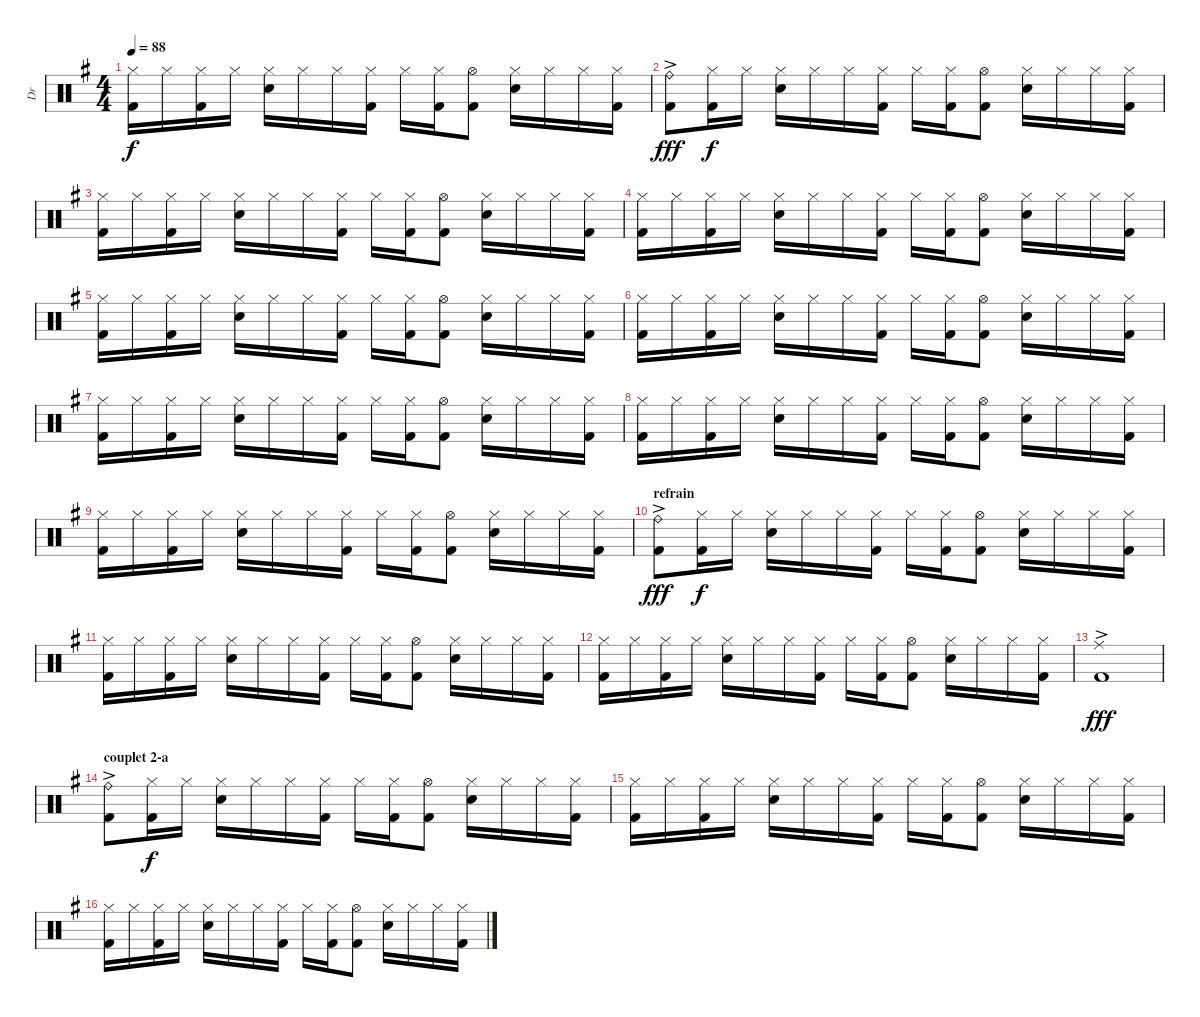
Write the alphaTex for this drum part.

\track ("Dr" "Dr") {instrument percussion}
\staff {score}
\articulation defaults
\ts (4 4)
\tempo 88
\clef neutral
\ks g
("Hi-Hat (closed)" "Kick (hit) 2").16{dy f} "Hi-Hat (closed)".16 ("Hi-Hat (closed)" "Kick (hit) 2").16 "Hi-Hat (closed)".16 ("Hi-Hat (closed)" "Electric Snare (hit)").16 "Hi-Hat (closed)".16 "Hi-Hat (closed)".16 ("Hi-Hat (closed)" "Kick (hit) 2").16 "Hi-Hat (closed)".16 ("Hi-Hat (closed)" "Kick (hit) 2").16 ("Hi-Hat (open)" "Kick (hit) 2").8 ("Hi-Hat (closed)" "Electric Snare (hit)").16 "Hi-Hat (closed)".16 "Hi-Hat (closed)".16 ("Hi-Hat (closed)" "Kick (hit) 2").16 |
("Ride (bell)"{ac} "Kick (hit) 2"{ac}).8{dy fff} ("Hi-Hat (closed)" "Kick (hit) 2").16{dy f} "Hi-Hat (closed)".16 ("Hi-Hat (closed)" "Electric Snare (hit)").16 "Hi-Hat (closed)".16 "Hi-Hat (closed)".16 ("Hi-Hat (closed)" "Kick (hit) 2").16 "Hi-Hat (closed)".16 ("Hi-Hat (closed)" "Kick (hit) 2").16 ("Hi-Hat (open)" "Kick (hit) 2").8 ("Hi-Hat (closed)" "Electric Snare (hit)").16 "Hi-Hat (closed)".16 "Hi-Hat (closed)".16 ("Hi-Hat (closed)" "Kick (hit) 2").16 |
("Hi-Hat (closed)" "Kick (hit) 2").16 "Hi-Hat (closed)".16 ("Hi-Hat (closed)" "Kick (hit) 2").16 "Hi-Hat (closed)".16 ("Hi-Hat (closed)" "Electric Snare (hit)").16 "Hi-Hat (closed)".16 "Hi-Hat (closed)".16 ("Hi-Hat (closed)" "Kick (hit) 2").16 "Hi-Hat (closed)".16 ("Hi-Hat (closed)" "Kick (hit) 2").16 ("Hi-Hat (open)" "Kick (hit) 2").8 ("Hi-Hat (closed)" "Electric Snare (hit)").16 "Hi-Hat (closed)".16 "Hi-Hat (closed)".16 ("Hi-Hat (closed)" "Kick (hit) 2").16 |
("Hi-Hat (closed)" "Kick (hit) 2").16 "Hi-Hat (closed)".16 ("Hi-Hat (closed)" "Kick (hit) 2").16 "Hi-Hat (closed)".16 ("Hi-Hat (closed)" "Electric Snare (hit)").16 "Hi-Hat (closed)".16 "Hi-Hat (closed)".16 ("Hi-Hat (closed)" "Kick (hit) 2").16 "Hi-Hat (closed)".16 ("Hi-Hat (closed)" "Kick (hit) 2").16 ("Hi-Hat (open)" "Kick (hit) 2").8 ("Hi-Hat (closed)" "Electric Snare (hit)").16 "Hi-Hat (closed)".16 "Hi-Hat (closed)".16 ("Hi-Hat (closed)" "Kick (hit) 2").16 |
("Hi-Hat (closed)" "Kick (hit) 2").16 "Hi-Hat (closed)".16 ("Hi-Hat (closed)" "Kick (hit) 2").16 "Hi-Hat (closed)".16 ("Hi-Hat (closed)" "Electric Snare (hit)").16 "Hi-Hat (closed)".16 "Hi-Hat (closed)".16 ("Hi-Hat (closed)" "Kick (hit) 2").16 "Hi-Hat (closed)".16 ("Hi-Hat (closed)" "Kick (hit) 2").16 ("Hi-Hat (open)" "Kick (hit) 2").8 ("Hi-Hat (closed)" "Electric Snare (hit)").16 "Hi-Hat (closed)".16 "Hi-Hat (closed)".16 ("Hi-Hat (closed)" "Kick (hit) 2").16 |
("Hi-Hat (closed)" "Kick (hit) 2").16 "Hi-Hat (closed)".16 ("Hi-Hat (closed)" "Kick (hit) 2").16 "Hi-Hat (closed)".16 ("Hi-Hat (closed)" "Electric Snare (hit)").16 "Hi-Hat (closed)".16 "Hi-Hat (closed)".16 ("Hi-Hat (closed)" "Kick (hit) 2").16 "Hi-Hat (closed)".16 ("Hi-Hat (closed)" "Kick (hit) 2").16 ("Hi-Hat (open)" "Kick (hit) 2").8 ("Hi-Hat (closed)" "Electric Snare (hit)").16 "Hi-Hat (closed)".16 "Hi-Hat (closed)".16 ("Hi-Hat (closed)" "Kick (hit) 2").16 |
("Hi-Hat (closed)" "Kick (hit) 2").16 "Hi-Hat (closed)".16 ("Hi-Hat (closed)" "Kick (hit) 2").16 "Hi-Hat (closed)".16 ("Hi-Hat (closed)" "Electric Snare (hit)").16 "Hi-Hat (closed)".16 "Hi-Hat (closed)".16 ("Hi-Hat (closed)" "Kick (hit) 2").16 "Hi-Hat (closed)".16 ("Hi-Hat (closed)" "Kick (hit) 2").16 ("Hi-Hat (open)" "Kick (hit) 2").8 ("Hi-Hat (closed)" "Electric Snare (hit)").16 "Hi-Hat (closed)".16 "Hi-Hat (closed)".16 ("Hi-Hat (closed)" "Kick (hit) 2").16 |
("Hi-Hat (closed)" "Kick (hit) 2").16 "Hi-Hat (closed)".16 ("Hi-Hat (closed)" "Kick (hit) 2").16 "Hi-Hat (closed)".16 ("Hi-Hat (closed)" "Electric Snare (hit)").16 "Hi-Hat (closed)".16 "Hi-Hat (closed)".16 ("Hi-Hat (closed)" "Kick (hit) 2").16 "Hi-Hat (closed)".16 ("Hi-Hat (closed)" "Kick (hit) 2").16 ("Hi-Hat (open)" "Kick (hit) 2").8 ("Hi-Hat (closed)" "Electric Snare (hit)").16 "Hi-Hat (closed)".16 "Hi-Hat (closed)".16 ("Hi-Hat (closed)" "Kick (hit) 2").16 |
("Hi-Hat (closed)" "Kick (hit) 2").16 "Hi-Hat (closed)".16 ("Hi-Hat (closed)" "Kick (hit) 2").16 "Hi-Hat (closed)".16 ("Hi-Hat (closed)" "Electric Snare (hit)").16 "Hi-Hat (closed)".16 "Hi-Hat (closed)".16 ("Hi-Hat (closed)" "Kick (hit) 2").16 "Hi-Hat (closed)".16 ("Hi-Hat (closed)" "Kick (hit) 2").16 ("Hi-Hat (open)" "Kick (hit) 2").8 ("Hi-Hat (closed)" "Electric Snare (hit)").16 "Hi-Hat (closed)".16 "Hi-Hat (closed)".16 ("Hi-Hat (closed)" "Kick (hit) 2").16 |
\section ("" "refrain")
("Ride (bell)"{ac} "Kick (hit) 2"{ac}).8{dy fff} ("Hi-Hat (closed)" "Kick (hit) 2").16{dy f} "Hi-Hat (closed)".16 ("Hi-Hat (closed)" "Electric Snare (hit)").16 "Hi-Hat (closed)".16 "Hi-Hat (closed)".16 ("Hi-Hat (closed)" "Kick (hit) 2").16 "Hi-Hat (closed)".16 ("Hi-Hat (closed)" "Kick (hit) 2").16 ("Hi-Hat (open)" "Kick (hit) 2").8 ("Hi-Hat (closed)" "Electric Snare (hit)").16 "Hi-Hat (closed)".16 "Hi-Hat (closed)".16 ("Hi-Hat (closed)" "Kick (hit) 2").16 |
("Hi-Hat (closed)" "Kick (hit) 2").16 "Hi-Hat (closed)".16 ("Hi-Hat (closed)" "Kick (hit) 2").16 "Hi-Hat (closed)".16 ("Hi-Hat (closed)" "Electric Snare (hit)").16 "Hi-Hat (closed)".16 "Hi-Hat (closed)".16 ("Hi-Hat (closed)" "Kick (hit) 2").16 "Hi-Hat (closed)".16 ("Hi-Hat (closed)" "Kick (hit) 2").16 ("Hi-Hat (open)" "Kick (hit) 2").8 ("Hi-Hat (closed)" "Electric Snare (hit)").16 "Hi-Hat (closed)".16 "Hi-Hat (closed)".16 ("Hi-Hat (closed)" "Kick (hit) 2").16 |
("Hi-Hat (closed)" "Kick (hit) 2").16 "Hi-Hat (closed)".16 ("Hi-Hat (closed)" "Kick (hit) 2").16 "Hi-Hat (closed)".16 ("Hi-Hat (closed)" "Electric Snare (hit)").16 "Hi-Hat (closed)".16 "Hi-Hat (closed)".16 ("Hi-Hat (closed)" "Kick (hit) 2").16 "Hi-Hat (closed)".16 ("Hi-Hat (closed)" "Kick (hit) 2").16 ("Hi-Hat (open)" "Kick (hit) 2").8 ("Hi-Hat (closed)" "Electric Snare (hit)").16 "Hi-Hat (closed)".16 "Hi-Hat (closed)".16 ("Hi-Hat (closed)" "Kick (hit) 2").16 |
("Ride (middle)"{ac} "Kick (hit) 2"{ac}).1{dy fff} |
\section ("" "couplet 2-a")
("Ride (bell)"{ac} "Kick (hit) 2"{ac}).8 ("Hi-Hat (closed)" "Kick (hit) 2").16{dy f} "Hi-Hat (closed)".16 ("Hi-Hat (closed)" "Electric Snare (hit)").16 "Hi-Hat (closed)".16 "Hi-Hat (closed)".16 ("Hi-Hat (closed)" "Kick (hit) 2").16 "Hi-Hat (closed)".16 ("Hi-Hat (closed)" "Kick (hit) 2").16 ("Hi-Hat (open)" "Kick (hit) 2").8 ("Hi-Hat (closed)" "Electric Snare (hit)").16 "Hi-Hat (closed)".16 "Hi-Hat (closed)".16 ("Hi-Hat (closed)" "Kick (hit) 2").16 |
("Hi-Hat (closed)" "Kick (hit) 2").16 "Hi-Hat (closed)".16 ("Hi-Hat (closed)" "Kick (hit) 2").16 "Hi-Hat (closed)".16 ("Hi-Hat (closed)" "Electric Snare (hit)").16 "Hi-Hat (closed)".16 "Hi-Hat (closed)".16 ("Hi-Hat (closed)" "Kick (hit) 2").16 "Hi-Hat (closed)".16 ("Hi-Hat (closed)" "Kick (hit) 2").16 ("Hi-Hat (open)" "Kick (hit) 2").8 ("Hi-Hat (closed)" "Electric Snare (hit)").16 "Hi-Hat (closed)".16 "Hi-Hat (closed)".16 ("Hi-Hat (closed)" "Kick (hit) 2").16 |
("Hi-Hat (closed)" "Kick (hit) 2").16 "Hi-Hat (closed)".16 ("Hi-Hat (closed)" "Kick (hit) 2").16 "Hi-Hat (closed)".16 ("Hi-Hat (closed)" "Electric Snare (hit)").16 "Hi-Hat (closed)".16 "Hi-Hat (closed)".16 ("Hi-Hat (closed)" "Kick (hit) 2").16 "Hi-Hat (closed)".16 ("Hi-Hat (closed)" "Kick (hit) 2").16 ("Hi-Hat (open)" "Kick (hit) 2").8 ("Hi-Hat (closed)" "Electric Snare (hit)").16 "Hi-Hat (closed)".16 "Hi-Hat (closed)".16 ("Hi-Hat (closed)" "Kick (hit) 2").16
